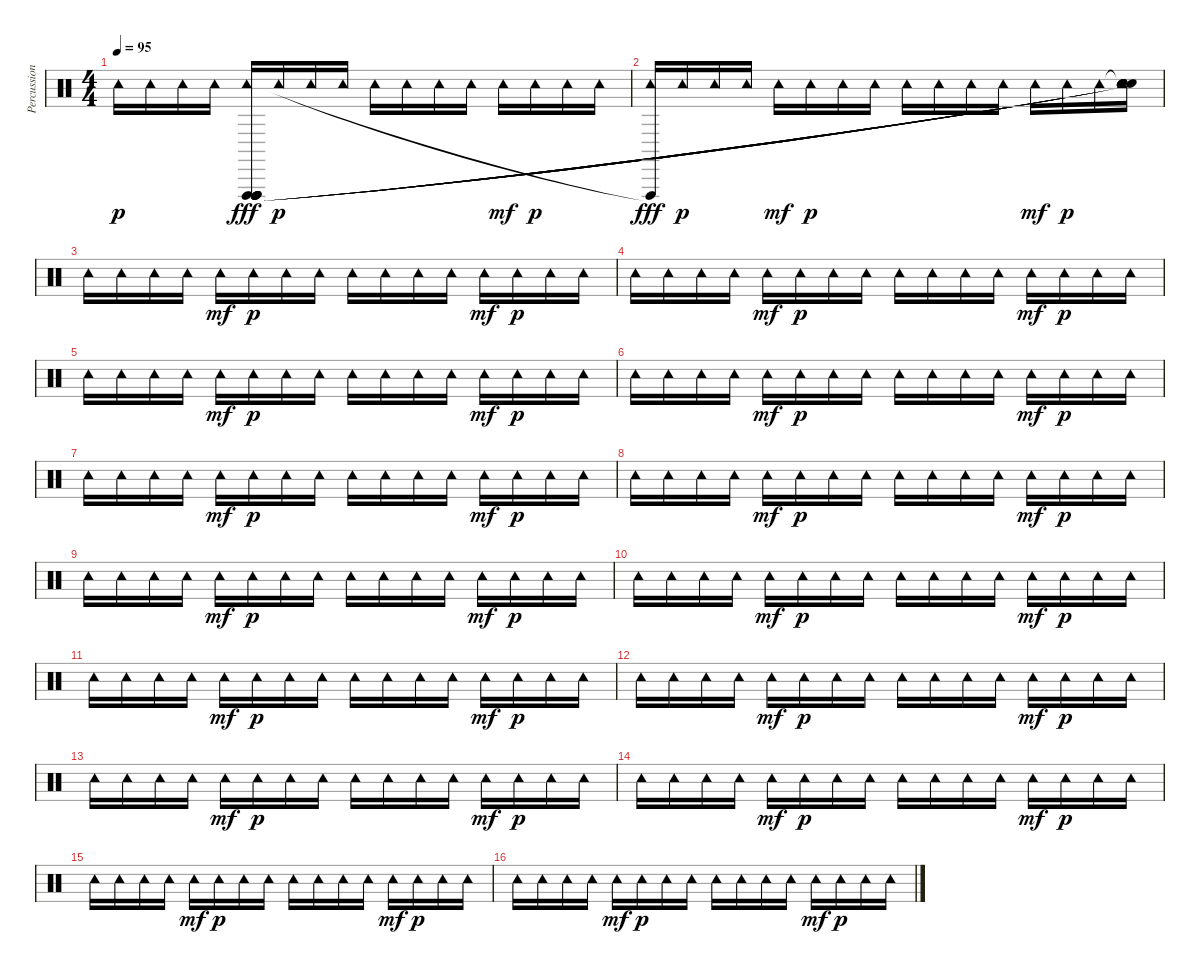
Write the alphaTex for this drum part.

\track ("Percussion" "Percussion") {instrument percussion}
\staff {score}
\articulation defaults
\ts (4 4)
\tempo 95
\clef neutral
\ks c "Tambourine (hit)".16{dy p} "Tambourine (hit)".16 "Tambourine (hit)".16 "Tambourine (hit)".16
("Vibraslap (hit)" "Tambourine (hit)" "Vibraslap (hit)" "Vibraslap (hit)" "Vibraslap (hit)" "Vibraslap (hit)").16{dy fff} "Tambourine (hit)".16{dy p} "Tambourine (hit)".16 "Tambourine (hit)".16 "Tambourine (hit)".16 "Tambourine (hit)".16 "Tambourine (hit)".16 "Tambourine (hit)".16 "Tambourine (hit)".16{dy mf} "Tambourine (hit)".16{dy p} "Tambourine (hit)".16 "Tambourine (hit)".16 |
("Tambourine (hit)" "Vibraslap (hit)"{t}).16{dy fff} "Tambourine (hit)".16{dy p} "Tambourine (hit)".16 "Tambourine (hit)".16 "Tambourine (hit)".16{dy mf} "Tambourine (hit)".16{dy p} "Tambourine (hit)".16 "Tambourine (hit)".16 "Tambourine (hit)".16 "Tambourine (hit)".16 "Tambourine (hit)".16 "Tambourine (hit)".16 "Tambourine (hit)".16{dy mf} "Tambourine (hit)".16{dy p} "Tambourine (hit)".16 ("Snare (hit)"{t} "Tambourine (hit)" "Snare (hit)"{t} "Snare (hit)"{t} "Snare (hit)"{t} "Snare (hit)"{t}).16 |
"Tambourine (hit)".16 "Tambourine (hit)".16 "Tambourine (hit)".16 "Tambourine (hit)".16 "Tambourine (hit)".16{dy mf} "Tambourine (hit)".16{dy p} "Tambourine (hit)".16 "Tambourine (hit)".16 "Tambourine (hit)".16 "Tambourine (hit)".16 "Tambourine (hit)".16 "Tambourine (hit)".16 "Tambourine (hit)".16{dy mf} "Tambourine (hit)".16{dy p} "Tambourine (hit)".16 "Tambourine (hit)".16 |
"Tambourine (hit)".16 "Tambourine (hit)".16 "Tambourine (hit)".16 "Tambourine (hit)".16 "Tambourine (hit)".16{dy mf} "Tambourine (hit)".16{dy p} "Tambourine (hit)".16 "Tambourine (hit)".16 "Tambourine (hit)".16 "Tambourine (hit)".16 "Tambourine (hit)".16 "Tambourine (hit)".16 "Tambourine (hit)".16{dy mf} "Tambourine (hit)".16{dy p} "Tambourine (hit)".16 "Tambourine (hit)".16 |
"Tambourine (hit)".16 "Tambourine (hit)".16 "Tambourine (hit)".16 "Tambourine (hit)".16 "Tambourine (hit)".16{dy mf} "Tambourine (hit)".16{dy p} "Tambourine (hit)".16 "Tambourine (hit)".16 "Tambourine (hit)".16 "Tambourine (hit)".16 "Tambourine (hit)".16 "Tambourine (hit)".16 "Tambourine (hit)".16{dy mf} "Tambourine (hit)".16{dy p} "Tambourine (hit)".16 "Tambourine (hit)".16 |
"Tambourine (hit)".16 "Tambourine (hit)".16 "Tambourine (hit)".16 "Tambourine (hit)".16 "Tambourine (hit)".16{dy mf} "Tambourine (hit)".16{dy p} "Tambourine (hit)".16 "Tambourine (hit)".16 "Tambourine (hit)".16 "Tambourine (hit)".16 "Tambourine (hit)".16 "Tambourine (hit)".16 "Tambourine (hit)".16{dy mf} "Tambourine (hit)".16{dy p} "Tambourine (hit)".16 "Tambourine (hit)".16 |
"Tambourine (hit)".16 "Tambourine (hit)".16 "Tambourine (hit)".16 "Tambourine (hit)".16 "Tambourine (hit)".16{dy mf} "Tambourine (hit)".16{dy p} "Tambourine (hit)".16 "Tambourine (hit)".16 "Tambourine (hit)".16 "Tambourine (hit)".16 "Tambourine (hit)".16 "Tambourine (hit)".16 "Tambourine (hit)".16{dy mf} "Tambourine (hit)".16{dy p} "Tambourine (hit)".16 "Tambourine (hit)".16 |
"Tambourine (hit)".16 "Tambourine (hit)".16 "Tambourine (hit)".16 "Tambourine (hit)".16 "Tambourine (hit)".16{dy mf} "Tambourine (hit)".16{dy p} "Tambourine (hit)".16 "Tambourine (hit)".16 "Tambourine (hit)".16 "Tambourine (hit)".16 "Tambourine (hit)".16 "Tambourine (hit)".16 "Tambourine (hit)".16{dy mf} "Tambourine (hit)".16{dy p} "Tambourine (hit)".16 "Tambourine (hit)".16 |
"Tambourine (hit)".16 "Tambourine (hit)".16 "Tambourine (hit)".16 "Tambourine (hit)".16 "Tambourine (hit)".16{dy mf} "Tambourine (hit)".16{dy p} "Tambourine (hit)".16 "Tambourine (hit)".16 "Tambourine (hit)".16 "Tambourine (hit)".16 "Tambourine (hit)".16 "Tambourine (hit)".16 "Tambourine (hit)".16{dy mf} "Tambourine (hit)".16{dy p} "Tambourine (hit)".16 "Tambourine (hit)".16 |
"Tambourine (hit)".16 "Tambourine (hit)".16 "Tambourine (hit)".16 "Tambourine (hit)".16 "Tambourine (hit)".16{dy mf} "Tambourine (hit)".16{dy p} "Tambourine (hit)".16 "Tambourine (hit)".16 "Tambourine (hit)".16 "Tambourine (hit)".16 "Tambourine (hit)".16 "Tambourine (hit)".16 "Tambourine (hit)".16{dy mf} "Tambourine (hit)".16{dy p} "Tambourine (hit)".16 "Tambourine (hit)".16 |
"Tambourine (hit)".16 "Tambourine (hit)".16 "Tambourine (hit)".16 "Tambourine (hit)".16 "Tambourine (hit)".16{dy mf} "Tambourine (hit)".16{dy p} "Tambourine (hit)".16 "Tambourine (hit)".16 "Tambourine (hit)".16 "Tambourine (hit)".16 "Tambourine (hit)".16 "Tambourine (hit)".16 "Tambourine (hit)".16{dy mf} "Tambourine (hit)".16{dy p} "Tambourine (hit)".16 "Tambourine (hit)".16 |
"Tambourine (hit)".16 "Tambourine (hit)".16 "Tambourine (hit)".16 "Tambourine (hit)".16 "Tambourine (hit)".16{dy mf} "Tambourine (hit)".16{dy p} "Tambourine (hit)".16 "Tambourine (hit)".16 "Tambourine (hit)".16 "Tambourine (hit)".16 "Tambourine (hit)".16 "Tambourine (hit)".16 "Tambourine (hit)".16{dy mf} "Tambourine (hit)".16{dy p} "Tambourine (hit)".16 "Tambourine (hit)".16 |
"Tambourine (hit)".16 "Tambourine (hit)".16 "Tambourine (hit)".16 "Tambourine (hit)".16 "Tambourine (hit)".16{dy mf} "Tambourine (hit)".16{dy p} "Tambourine (hit)".16 "Tambourine (hit)".16 "Tambourine (hit)".16 "Tambourine (hit)".16 "Tambourine (hit)".16 "Tambourine (hit)".16 "Tambourine (hit)".16{dy mf} "Tambourine (hit)".16{dy p} "Tambourine (hit)".16 "Tambourine (hit)".16 |
"Tambourine (hit)".16 "Tambourine (hit)".16 "Tambourine (hit)".16 "Tambourine (hit)".16 "Tambourine (hit)".16{dy mf} "Tambourine (hit)".16{dy p} "Tambourine (hit)".16 "Tambourine (hit)".16 "Tambourine (hit)".16 "Tambourine (hit)".16 "Tambourine (hit)".16 "Tambourine (hit)".16 "Tambourine (hit)".16{dy mf} "Tambourine (hit)".16{dy p} "Tambourine (hit)".16 "Tambourine (hit)".16 |
"Tambourine (hit)".16 "Tambourine (hit)".16 "Tambourine (hit)".16 "Tambourine (hit)".16 "Tambourine (hit)".16{dy mf} "Tambourine (hit)".16{dy p} "Tambourine (hit)".16 "Tambourine (hit)".16 "Tambourine (hit)".16 "Tambourine (hit)".16 "Tambourine (hit)".16 "Tambourine (hit)".16 "Tambourine (hit)".16{dy mf} "Tambourine (hit)".16{dy p} "Tambourine (hit)".16 "Tambourine (hit)".16 |
"Tambourine (hit)".16 "Tambourine (hit)".16 "Tambourine (hit)".16 "Tambourine (hit)".16 "Tambourine (hit)".16{dy mf} "Tambourine (hit)".16{dy p} "Tambourine (hit)".16 "Tambourine (hit)".16 "Tambourine (hit)".16 "Tambourine (hit)".16 "Tambourine (hit)".16 "Tambourine (hit)".16 "Tambourine (hit)".16{dy mf} "Tambourine (hit)".16{dy p} "Tambourine (hit)".16 "Tambourine (hit)".16
